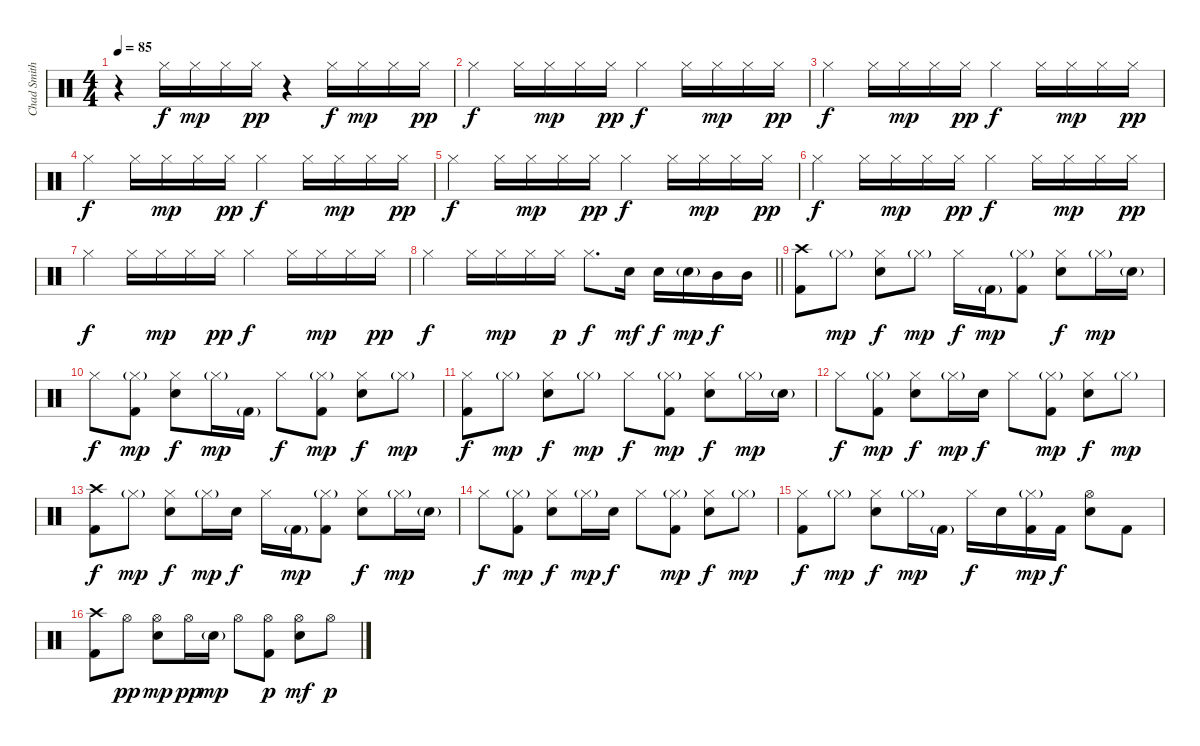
\track ("Chad Smith" "Chad Smith") {instrument percussion}
\staff {score}
\articulation defaults
\ts (4 4)
\tempo 85
\clef neutral
\ks c
r.4{dy pp} "Hi-Hat (closed)".16{dy f} "Hi-Hat (closed)".16{dy mp} "Hi-Hat (closed)".16 "Hi-Hat (closed)".16{dy pp} r.4 "Hi-Hat (closed)".16{dy f} "Hi-Hat (closed)".16{dy mp} "Hi-Hat (closed)".16 "Hi-Hat (closed)".16{dy pp} |
"Hi-Hat (closed)".4{dy f} "Hi-Hat (closed)".16 "Hi-Hat (closed)".16{dy mp} "Hi-Hat (closed)".16 "Hi-Hat (closed)".16{dy pp} "Hi-Hat (closed)".4{dy f} "Hi-Hat (closed)".16 "Hi-Hat (closed)".16{dy mp} "Hi-Hat (closed)".16 "Hi-Hat (closed)".16{dy pp} |
"Hi-Hat (closed)".4{dy f} "Hi-Hat (closed)".16 "Hi-Hat (closed)".16{dy mp} "Hi-Hat (closed)".16 "Hi-Hat (closed)".16{dy pp} "Hi-Hat (closed)".4{dy f} "Hi-Hat (closed)".16 "Hi-Hat (closed)".16{dy mp} "Hi-Hat (closed)".16 "Hi-Hat (closed)".16{dy pp} |
"Hi-Hat (closed)".4{dy f} "Hi-Hat (closed)".16 "Hi-Hat (closed)".16{dy mp} "Hi-Hat (closed)".16 "Hi-Hat (closed)".16{dy pp} "Hi-Hat (closed)".4{dy f} "Hi-Hat (closed)".16 "Hi-Hat (closed)".16{dy mp} "Hi-Hat (closed)".16 "Hi-Hat (closed)".16{dy pp} |
"Hi-Hat (closed)".4{dy f} "Hi-Hat (closed)".16 "Hi-Hat (closed)".16{dy mp} "Hi-Hat (closed)".16 "Hi-Hat (closed)".16{dy pp} "Hi-Hat (closed)".4{dy f} "Hi-Hat (closed)".16 "Hi-Hat (closed)".16{dy mp} "Hi-Hat (closed)".16 "Hi-Hat (closed)".16{dy pp} |
"Hi-Hat (closed)".4{dy f} "Hi-Hat (closed)".16 "Hi-Hat (closed)".16{dy mp} "Hi-Hat (closed)".16 "Hi-Hat (closed)".16{dy pp} "Hi-Hat (closed)".4{dy f} "Hi-Hat (closed)".16 "Hi-Hat (closed)".16{dy mp} "Hi-Hat (closed)".16 "Hi-Hat (closed)".16{dy pp} |
"Hi-Hat (closed)".4{dy f} "Hi-Hat (closed)".16 "Hi-Hat (closed)".16{dy mp} "Hi-Hat (closed)".16 "Hi-Hat (closed)".16{dy pp} "Hi-Hat (closed)".4{dy f} "Hi-Hat (closed)".16 "Hi-Hat (closed)".16{dy mp} "Hi-Hat (closed)".16 "Hi-Hat (closed)".16{dy pp} |
\barLineRight lightlight "Hi-Hat (closed)".4{dy f} "Hi-Hat (closed)".16 "Hi-Hat (closed)".16{dy mp} "Hi-Hat (closed)".16 "Hi-Hat (closed)".16{dy p} "Hi-Hat (closed)".8{d dy f} "Electric Snare (hit)".16{dy mf} "Electric Snare (hit)".16{dy f} "Electric Snare (hit)"{g}.16{dy mp} "Mid Tom (hit)".16{dy f} "Mid Tom (hit)".16
|
("Crash high (hit)" "Kick (hit) 2").8 "Hi-Hat (closed)"{g}.8{dy mp} ("Hi-Hat (closed)" "Electric Snare (hit)").8{dy f} "Hi-Hat (closed)"{g}.8{dy mp} "Hi-Hat (closed)".16{dy f} "Kick (hit) 2"{g}.16{dy mp} ("Hi-Hat (closed)"{g} "Kick (hit) 2").8 ("Hi-Hat (closed)" "Electric Snare (hit)").8{dy f} "Hi-Hat (closed)"{g}.16{dy mp} "Electric Snare (hit)"{g}.16 |
"Hi-Hat (closed)".8{dy f} ("Hi-Hat (closed)"{g} "Kick (hit) 2").8{dy mp} ("Hi-Hat (closed)" "Electric Snare (hit)").8{dy f} "Hi-Hat (closed)"{g}.16{dy mp} "Kick (hit) 2"{g}.16 "Hi-Hat (closed)".8{dy f} ("Hi-Hat (closed)"{g} "Kick (hit) 2").8{dy mp} ("Hi-Hat (closed)" "Electric Snare (hit)").8{dy f} "Hi-Hat (closed)"{g}.8{dy mp} |
("Hi-Hat (closed)" "Kick (hit) 2").8{dy f} "Hi-Hat (closed)"{g}.8{dy mp} ("Hi-Hat (closed)" "Electric Snare (hit)").8{dy f} "Hi-Hat (closed)"{g}.8{dy mp} "Hi-Hat (closed)".8{dy f} ("Hi-Hat (closed)"{g} "Kick (hit) 2").8{dy mp} ("Hi-Hat (closed)" "Electric Snare (hit)").8{dy f} "Hi-Hat (closed)"{g}.16{dy mp} "Electric Snare (hit)"{g}.16 |
"Hi-Hat (closed)".8{dy f} ("Hi-Hat (closed)"{g} "Kick (hit) 2").8{dy mp} ("Hi-Hat (closed)" "Electric Snare (hit)").8{dy f} "Hi-Hat (closed)"{g}.16{dy mp} "Electric Snare (hit)".16{dy f} "Hi-Hat (closed)".8 ("Hi-Hat (closed)"{g} "Kick (hit) 2").8{dy mp} ("Hi-Hat (closed)" "Electric Snare (hit)").8{dy f} "Hi-Hat (closed)"{g}.8{dy mp} |
("Crash high (hit)" "Kick (hit) 2").8{dy f} "Hi-Hat (closed)"{g}.8{dy mp} ("Hi-Hat (closed)" "Electric Snare (hit)").8{dy f} "Hi-Hat (closed)"{g}.16{dy mp} "Electric Snare (hit)".16{dy f} "Hi-Hat (closed)".16 "Kick (hit) 2"{g}.16{dy mp} ("Hi-Hat (closed)"{g} "Kick (hit) 2").8 ("Hi-Hat (closed)" "Electric Snare (hit)").8{dy f} "Hi-Hat (closed)"{g}.16{dy mp} "Electric Snare (hit)"{g}.16 |
"Hi-Hat (closed)".8{dy f} ("Hi-Hat (closed)"{g} "Kick (hit) 2").8{dy mp} ("Hi-Hat (closed)" "Electric Snare (hit)").8{dy f} "Hi-Hat (closed)"{g}.16{dy mp} "Electric Snare (hit)".16{dy f} "Hi-Hat (closed)".8 ("Hi-Hat (closed)"{g} "Kick (hit) 2").8{dy mp} ("Hi-Hat (closed)" "Electric Snare (hit)").8{dy f} "Hi-Hat (closed)"{g}.8{dy mp} |
("Hi-Hat (closed)" "Kick (hit) 2").8{dy f} "Hi-Hat (closed)"{g}.8{dy mp} ("Hi-Hat (closed)" "Electric Snare (hit)").8{dy f} "Hi-Hat (closed)"{g}.16{dy mp} "Kick (hit) 2"{g}.16 "Hi-Hat (closed)".16{dy f} "Electric Snare (hit)".16 ("Hi-Hat (closed)"{g} "Kick (hit) 2").16{dy mp} "Kick (hit) 2".16{dy f} ("Hi-Hat (open)" "Electric Snare (hit)").8 "Kick (hit) 2".8 |
("Crash high (hit)" "Kick (hit) 2").8 "Hi-Hat (open)".8{dy pp} ("Hi-Hat (open)" "Electric Snare (hit)").8{dy mp} "Hi-Hat (open)".16{dy pp} "Electric Snare (hit)"{g}.16{dy mp} "Hi-Hat (open)".8 ("Hi-Hat (open)" "Kick (hit) 2").8{dy p} ("Hi-Hat (open)" "Electric Snare (hit)").8{dy mf} "Hi-Hat (open)".8{dy p}
